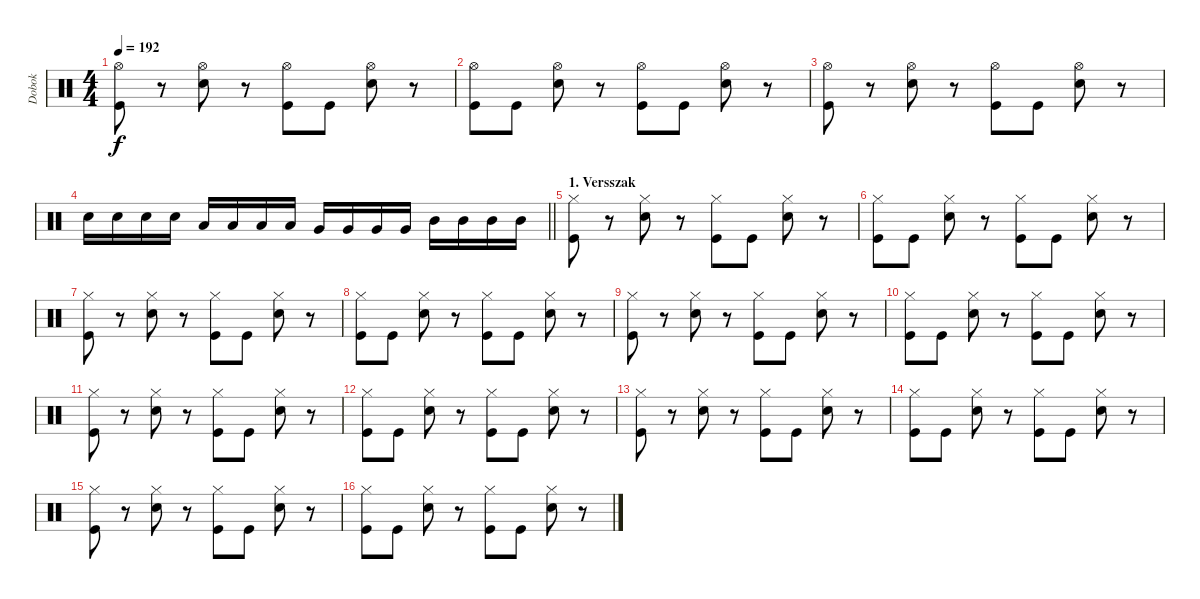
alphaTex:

\track ("Dobok" "Dobok") {instrument percussion}
\staff {score}
\articulation defaults
\ts (4 4)
\tempo 192
\clef neutral
\ks c
("Hi-Hat (open)" "Kick (hit)").8{dy f} r.8 ("Hi-Hat (open)" "Electric Snare (hit)").8 r.8 ("Hi-Hat (open)" "Kick (hit)").8 "Kick (hit)".8 ("Hi-Hat (open)" "Electric Snare (hit)").8 r.8 |
("Hi-Hat (open)" "Kick (hit)").8 "Kick (hit)".8 ("Hi-Hat (open)" "Electric Snare (hit)").8 r.8 ("Hi-Hat (open)" "Kick (hit)").8 "Kick (hit)".8 ("Hi-Hat (open)" "Electric Snare (hit)").8 r.8 |
("Hi-Hat (open)" "Kick (hit)").8 r.8 ("Hi-Hat (open)" "Electric Snare (hit)").8 r.8 ("Hi-Hat (open)" "Kick (hit)").8 "Kick (hit)".8 ("Hi-Hat (open)" "Electric Snare (hit)").8 r.8 |
\barLineRight lightlight "Electric Snare (hit)".16 "Electric Snare (hit)".16 "Electric Snare (hit)".16 "Electric Snare (hit)".16 "Low Floor Tom (hit)".16 "Low Floor Tom (hit)".16 "Low Floor Tom (hit)".16 "Low Floor Tom (hit)".16 "Very Low Tom (hit)".16 "Very Low Tom (hit)".16 "Very Low Tom (hit)".16 "Very Low Tom (hit)".16 "Mid Tom (hit)".16 "Mid Tom (hit)".16 "Mid Tom (hit)".16 "Mid Tom (hit)".16
|
\section ("" "1. Versszak")
("Hi-Hat (closed)" "Kick (hit)").8 r.8 ("Hi-Hat (closed)" "Electric Snare (hit)").8 r.8 ("Hi-Hat (closed)" "Kick (hit)").8 "Kick (hit)".8 ("Hi-Hat (closed)" "Electric Snare (hit)").8 r.8 |
("Hi-Hat (closed)" "Kick (hit)").8 "Kick (hit)".8 ("Hi-Hat (closed)" "Electric Snare (hit)").8 r.8 ("Hi-Hat (closed)" "Kick (hit)").8 "Kick (hit)".8 ("Hi-Hat (closed)" "Electric Snare (hit)").8 r.8 |
("Hi-Hat (closed)" "Kick (hit)").8 r.8 ("Hi-Hat (closed)" "Electric Snare (hit)").8 r.8 ("Hi-Hat (closed)" "Kick (hit)").8 "Kick (hit)".8 ("Hi-Hat (closed)" "Electric Snare (hit)").8 r.8 |
("Hi-Hat (closed)" "Kick (hit)").8 "Kick (hit)".8 ("Hi-Hat (closed)" "Electric Snare (hit)").8 r.8 ("Hi-Hat (closed)" "Kick (hit)").8 "Kick (hit)".8 ("Hi-Hat (closed)" "Electric Snare (hit)").8 r.8 |
("Hi-Hat (closed)" "Kick (hit)").8 r.8 ("Hi-Hat (closed)" "Electric Snare (hit)").8 r.8 ("Hi-Hat (closed)" "Kick (hit)").8 "Kick (hit)".8 ("Hi-Hat (closed)" "Electric Snare (hit)").8 r.8 |
("Hi-Hat (closed)" "Kick (hit)").8 "Kick (hit)".8 ("Hi-Hat (closed)" "Electric Snare (hit)").8 r.8 ("Hi-Hat (closed)" "Kick (hit)").8 "Kick (hit)".8 ("Hi-Hat (closed)" "Electric Snare (hit)").8 r.8 |
("Hi-Hat (closed)" "Kick (hit)").8 r.8 ("Hi-Hat (closed)" "Electric Snare (hit)").8 r.8 ("Hi-Hat (closed)" "Kick (hit)").8 "Kick (hit)".8 ("Hi-Hat (closed)" "Electric Snare (hit)").8 r.8 |
("Hi-Hat (closed)" "Kick (hit)").8 "Kick (hit)".8 ("Hi-Hat (closed)" "Electric Snare (hit)").8 r.8 ("Hi-Hat (closed)" "Kick (hit)").8 "Kick (hit)".8 ("Hi-Hat (closed)" "Electric Snare (hit)").8 r.8 |
("Hi-Hat (closed)" "Kick (hit)").8 r.8 ("Hi-Hat (closed)" "Electric Snare (hit)").8 r.8 ("Hi-Hat (closed)" "Kick (hit)").8 "Kick (hit)".8 ("Hi-Hat (closed)" "Electric Snare (hit)").8 r.8 |
("Hi-Hat (closed)" "Kick (hit)").8 "Kick (hit)".8 ("Hi-Hat (closed)" "Electric Snare (hit)").8 r.8 ("Hi-Hat (closed)" "Kick (hit)").8 "Kick (hit)".8 ("Hi-Hat (closed)" "Electric Snare (hit)").8 r.8 |
("Hi-Hat (closed)" "Kick (hit)").8 r.8 ("Hi-Hat (closed)" "Electric Snare (hit)").8 r.8 ("Hi-Hat (closed)" "Kick (hit)").8 "Kick (hit)".8 ("Hi-Hat (closed)" "Electric Snare (hit)").8 r.8 |
("Hi-Hat (closed)" "Kick (hit)").8 "Kick (hit)".8 ("Hi-Hat (closed)" "Electric Snare (hit)").8 r.8 ("Hi-Hat (closed)" "Kick (hit)").8 "Kick (hit)".8 ("Hi-Hat (closed)" "Electric Snare (hit)").8 r.8
